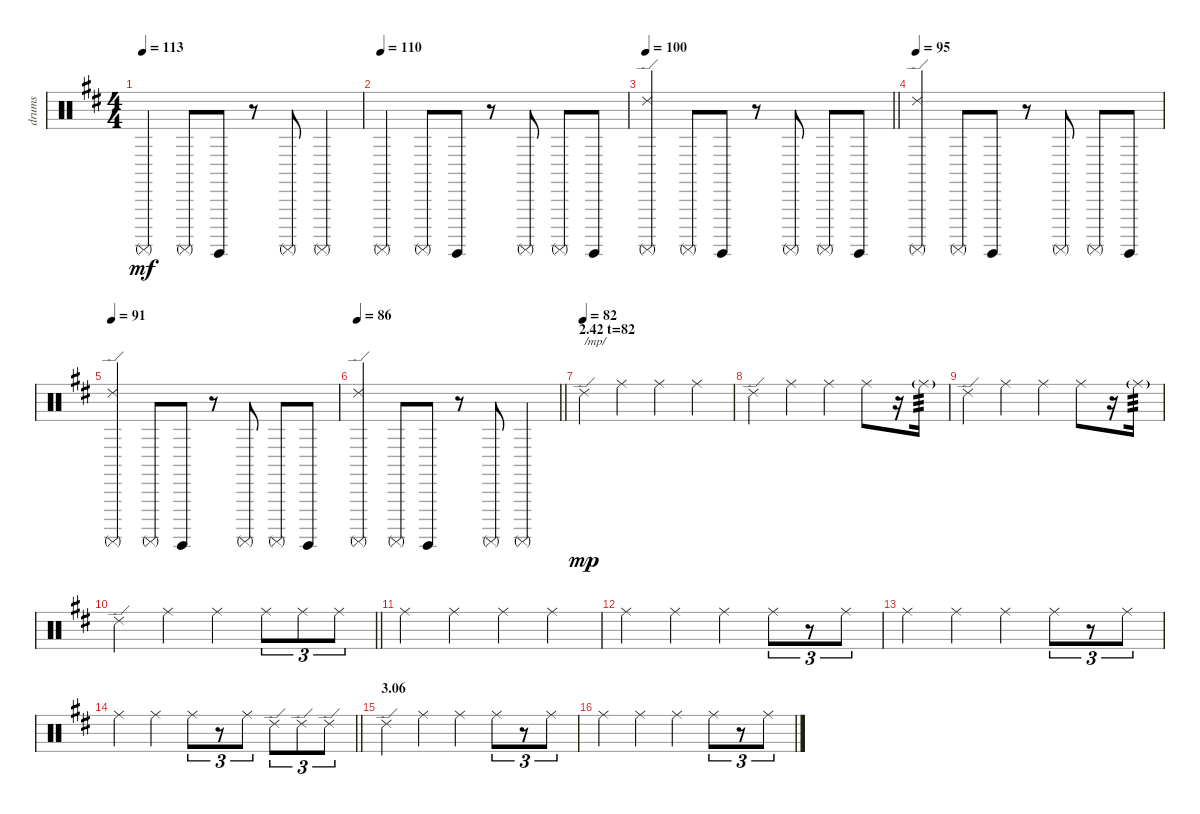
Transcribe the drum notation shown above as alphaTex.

\track ("drums" "drums") {instrument percussion}
\staff {score}
\articulation defaults
\ts (4 4)
\tempo 113
\clef neutral
\ks d "Surdo (mute)".4{dy mf} "Surdo (mute)".8 "Surdo (hit)".8
r.8 "Surdo (mute)".8 "Surdo (mute)".4 |
\tempo (110)
"Surdo (mute)".4 "Surdo (mute)".8 "Surdo (hit)".8 r.8 "Surdo (mute)".8 "Surdo (mute)".8 "Surdo (hit)".8 |
\tempo 100
\barLineRight lightlight
("Ride (edge) 2" "Surdo (mute)").4 "Surdo (mute)".8 "Surdo (hit)".8 r.8 "Surdo (mute)".8 "Surdo (mute)".8 "Surdo (hit)".8 |
\tempo 95
("Ride (edge) 2" "Surdo (mute)").4 "Surdo (mute)".8 "Surdo (hit)".8 r.8 "Surdo (mute)".8 "Surdo (mute)".8 "Surdo (hit)".8 |
\tempo 91
("Ride (edge) 2" "Surdo (mute)").4 "Surdo (mute)".8 "Surdo (hit)".8 r.8 "Surdo (mute)".8 "Surdo (mute)".8 "Surdo (hit)".8 |
\tempo 86
\barLineRight lightlight
("Ride (edge) 2" "Surdo (mute)").4 "Surdo (mute)".8 "Surdo (hit)".8 r.8 "Surdo (mute)".8 "Surdo (mute)".4 |
\section ("" "2.42 t=82")
\tempo (82)
"Ride (edge) 2".4{txt "/mp/" dy mp} "Ride (middle)".4 "Ride (middle)".4 "Ride (middle)".4 |
"Ride (edge) 2".4 "Ride (middle)".4 "Ride (middle)".4 "Ride (middle)".8 r.16 "Ride (middle)"{g}.16{tp 3} |
"Ride (edge) 2".4 "Ride (middle)".4 "Ride (middle)".4 "Ride (middle)".8 r.16 "Ride (middle)"{g}.16{tp 3} |
\barLineRight lightlight "Ride (edge) 2".4 "Ride (middle)".4 "Ride (middle)".4 "Ride (middle)".8{tu (3 2)} "Ride (middle)".8{tu (3 2)} "Ride (middle)".8{tu (3 2)}
|
"Ride (middle)".4 "Ride (middle)".4 "Ride (middle)".4 "Ride (middle)".4 |
"Ride (middle)".4 "Ride (middle)".4 "Ride (middle)".4 "Ride (middle)".8{tu (3 2)} r.8{tu (3 2)} "Ride (middle)".8{tu (3 2)} |
"Ride (middle)".4 "Ride (middle)".4 "Ride (middle)".4 "Ride (middle)".8{tu (3 2)} r.8{tu (3 2)} "Ride (middle)".8{tu (3 2)} |
\barLineRight lightlight "Ride (middle)".4 "Ride (middle)".4 "Ride (middle)".8{tu (3 2)}
r.8{tu (3 2)} "Ride (middle)".8{tu (3 2)} "Ride (edge) 2".8{tu (3 2)} "Ride (edge) 2".8{tu (3 2)} "Ride (edge) 2".8{tu (3 2)} |
\section ("" "3.06")
"Ride (edge) 2".4 "Ride (middle)".4 "Ride (middle)".4 "Ride (middle)".8{tu (3 2)} r.8{tu (3 2)} "Ride (middle)".8{tu (3 2)} |
"Ride (middle)".4 "Ride (middle)".4 "Ride (middle)".4 "Ride (middle)".8{tu (3 2)} r.8{tu (3 2)} "Ride (middle)".8{tu (3 2)}
